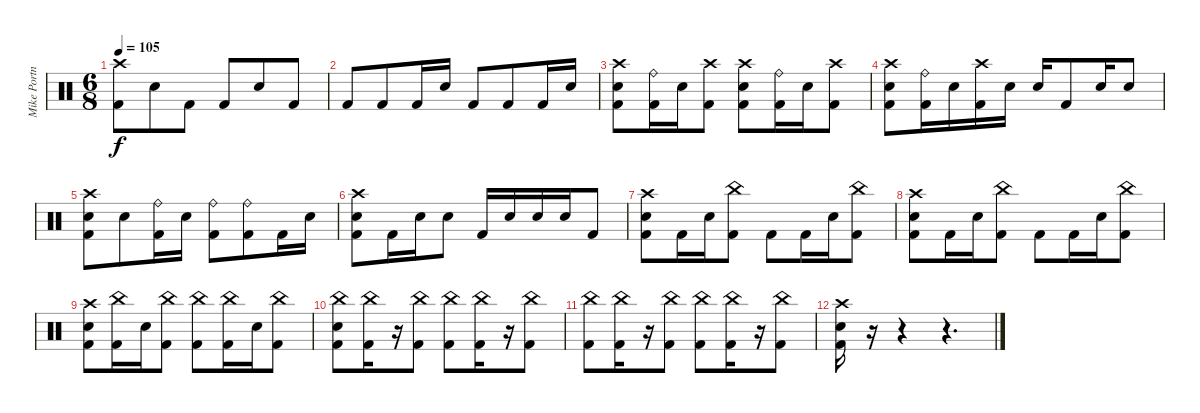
\track ("Mike Portnoy" "Mike Portn") {instrument percussion}
\staff {score}
\articulation defaults
\ts (6 8)
\tempo 105
\clef neutral
\ks c
("Crash high (hit)" "Kick (hit) 2").8{dy f} "Electric Snare (hit)".8 "Kick (hit) 2".8 "Kick (hit) 2".8 "Electric Snare (hit)".8 "Kick (hit) 2".8 |
"Kick (hit) 2".8 "Kick (hit) 2".8 "Kick (hit) 2".16 "Electric Snare (hit)".16 "Kick (hit) 2".8 "Kick (hit) 2".8 "Kick (hit) 2".16 "Electric Snare (hit)".16 |
("Crash high (hit)" "Electric Snare (hit)" "Kick (hit) 2").8 ("Ride (bell)" "Kick (hit) 2").16 "Electric Snare (hit)".16 ("Crash high (hit)" "Kick (hit) 2").8 ("Crash high (hit)" "Electric Snare (hit)" "Kick (hit) 2").8 ("Ride (bell)" "Kick (hit) 2").16 "Electric Snare (hit)".16 ("Crash high (hit)" "Kick (hit) 2").8 |
("Crash high (hit)" "Electric Snare (hit)" "Kick (hit) 2").8 ("Ride (bell)" "Kick (hit) 2").16 "Electric Snare (hit)".16 ("Crash high (hit)" "Kick (hit) 2").16 "Electric Snare (hit)".16 "Electric Snare (hit)".16 "Kick (hit) 2".8 "Electric Snare (hit)".16 "Electric Snare (hit)".8 |
("Crash high (hit)" "Electric Snare (hit)" "Kick (hit) 2").8 "Electric Snare (hit)".8 ("Ride (bell)" "Kick (hit) 2").16 "Electric Snare (hit)".16 ("Ride (bell)" "Kick (hit) 2").8 ("Ride (bell)" "Kick (hit) 2").8 "Kick (hit) 2".16 "Electric Snare (hit)".16 |
("Crash high (hit)" "Electric Snare (hit)" "Kick (hit) 2").8 "Kick (hit) 2".16 "Electric Snare (hit)".16 "Electric Snare (hit)".8 "Kick (hit) 2".16 "Electric Snare (hit)".16 "Electric Snare (hit)".16 "Electric Snare (hit)".16 "Kick (hit) 2".8 |
("Crash high (hit)" "Electric Snare (hit)" "Kick (hit) 2").8 "Kick (hit) 2".16 "Electric Snare (hit)".16 ("China (hit)" "Kick (hit) 2").8 "Kick (hit) 2".8 "Kick (hit) 2".16 "Electric Snare (hit)".16 ("China (hit)" "Kick (hit) 2").8 |
("Crash high (hit)" "Electric Snare (hit)" "Kick (hit) 2").8 "Kick (hit) 2".16 "Electric Snare (hit)".16 ("China (hit)" "Kick (hit) 2").8 "Kick (hit) 2".8 "Kick (hit) 2".16 "Electric Snare (hit)".16 ("China (hit)" "Kick (hit) 2").8 |
("Crash high (hit)" "Electric Snare (hit)" "Kick (hit) 2").8 ("China (hit)" "Kick (hit) 2").16 "Electric Snare (hit)".16 ("China (hit)" "Kick (hit) 2").8 ("China (hit)" "Kick (hit) 2").8 ("China (hit)" "Kick (hit) 2").16 "Electric Snare (hit)".16 ("China (hit)" "Kick (hit) 2").8 |
("China (hit)" "Electric Snare (hit)" "Kick (hit) 2").8 ("China (hit)" "Kick (hit) 2").16 r.16 ("China (hit)" "Kick (hit) 2").8 ("China (hit)" "Kick (hit) 2").8 ("China (hit)" "Kick (hit) 2").16 r.16 ("China (hit)" "Kick (hit) 2").8 |
("China (hit)" "Kick (hit) 2").8 ("China (hit)" "Kick (hit) 2").16 r.16 ("China (hit)" "Kick (hit) 2").8 ("China (hit)" "Kick (hit) 2").8 ("China (hit)" "Kick (hit) 2").16 r.16 ("China (hit)" "Kick (hit) 2").8 |
("Crash high (hit)" "Electric Snare (hit)" "Kick (hit) 2").16 r.16 r.4 r.4{d}
